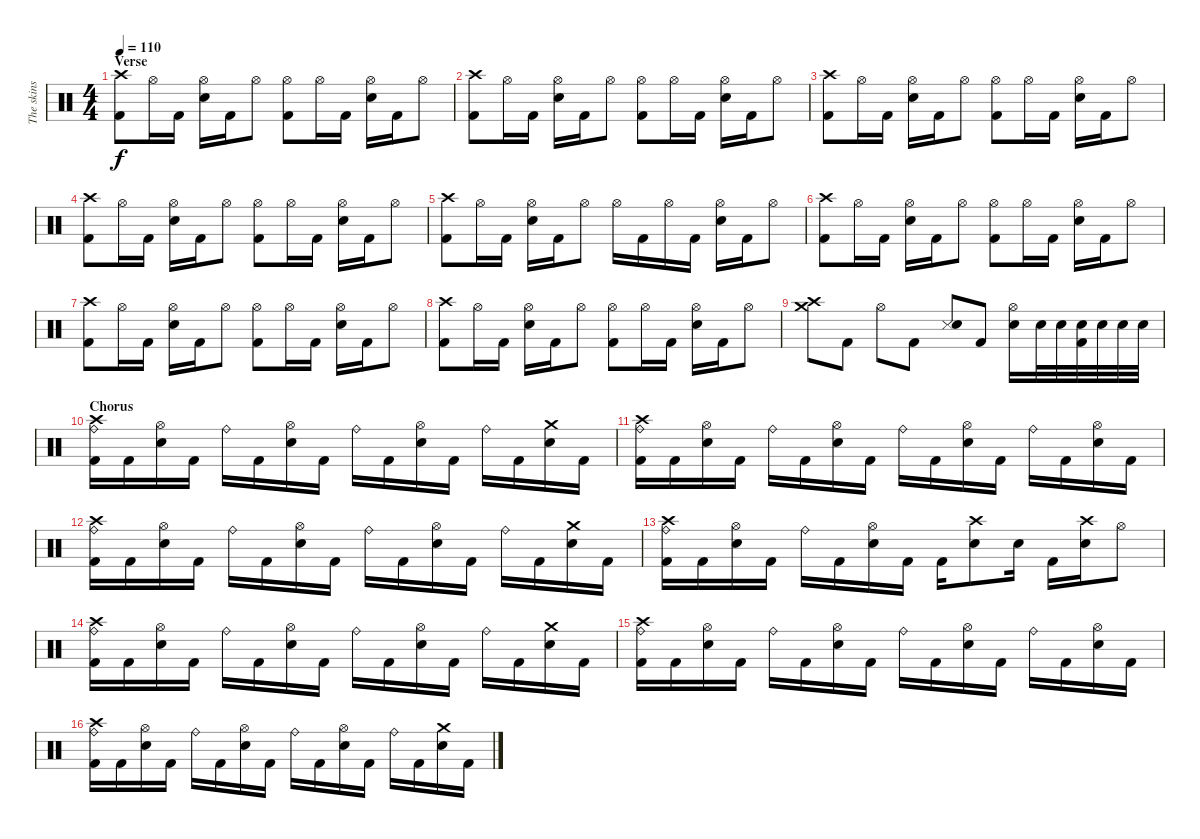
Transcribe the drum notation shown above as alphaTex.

\track ("The skins" "The skins") {instrument percussion}
\staff {score}
\articulation defaults
\ts (4 4)
\section ("" "Verse")
\tempo 110
\clef neutral
\ks c
("Crash high (hit)" "Kick (hit) 2").8{dy f} "Hi-Hat (open)".16 "Kick (hit) 2".16 ("Hi-Hat (open)" "Electric Snare (hit)").16 "Kick (hit) 2".16 "Hi-Hat (open)".8 ("Hi-Hat (open)" "Kick (hit) 2").8 "Hi-Hat (open)".16 "Kick (hit) 2".16 ("Hi-Hat (open)" "Electric Snare (hit)").16 "Kick (hit) 2".16 "Hi-Hat (open)".8 |
("Crash high (hit)" "Kick (hit) 2").8 "Hi-Hat (open)".16 "Kick (hit) 2".16 ("Hi-Hat (open)" "Electric Snare (hit)").16 "Kick (hit) 2".16 "Hi-Hat (open)".8 ("Hi-Hat (open)" "Kick (hit) 2").8 "Hi-Hat (open)".16 "Kick (hit) 2".16 ("Hi-Hat (open)" "Electric Snare (hit)").16 "Kick (hit) 2".16 "Hi-Hat (open)".8 |
("Crash high (hit)" "Kick (hit) 2").8 "Hi-Hat (open)".16 "Kick (hit) 2".16 ("Hi-Hat (open)" "Electric Snare (hit)").16 "Kick (hit) 2".16 "Hi-Hat (open)".8 ("Hi-Hat (open)" "Kick (hit) 2").8 "Hi-Hat (open)".16 "Kick (hit) 2".16 ("Hi-Hat (open)" "Electric Snare (hit)").16 "Kick (hit) 2".16 "Hi-Hat (open)".8 |
("Crash high (hit)" "Kick (hit) 2").8 "Hi-Hat (open)".16 "Kick (hit) 2".16 ("Hi-Hat (open)" "Electric Snare (hit)").16 "Kick (hit) 2".16 "Hi-Hat (open)".8 ("Hi-Hat (open)" "Kick (hit) 2").8 "Hi-Hat (open)".16 "Kick (hit) 2".16 ("Hi-Hat (open)" "Electric Snare (hit)").16 "Kick (hit) 2".16 "Hi-Hat (open)".8 |
("Crash high (hit)" "Kick (hit) 2").8 "Hi-Hat (open)".16 "Kick (hit) 2".16 ("Hi-Hat (open)" "Electric Snare (hit)").16 "Kick (hit) 2".16 "Hi-Hat (open)".8 "Hi-Hat (open)".16 "Kick (hit) 2".16 "Hi-Hat (open)".16 "Kick (hit) 2".16 ("Hi-Hat (open)" "Electric Snare (hit)").16 "Kick (hit) 2".16 "Hi-Hat (open)".8 |
("Crash high (hit)" "Kick (hit) 2").8 "Hi-Hat (open)".16 "Kick (hit) 2".16 ("Hi-Hat (open)" "Electric Snare (hit)").16 "Kick (hit) 2".16 "Hi-Hat (open)".8 ("Hi-Hat (open)" "Kick (hit) 2").8 "Hi-Hat (open)".16 "Kick (hit) 2".16 ("Hi-Hat (open)" "Electric Snare (hit)").16 "Kick (hit) 2".16 "Hi-Hat (open)".8 |
("Crash high (hit)" "Kick (hit) 2").8 "Hi-Hat (open)".16 "Kick (hit) 2".16 ("Hi-Hat (open)" "Electric Snare (hit)").16 "Kick (hit) 2".16 "Hi-Hat (open)".8 ("Hi-Hat (open)" "Kick (hit) 2").8 "Hi-Hat (open)".16 "Kick (hit) 2".16 ("Hi-Hat (open)" "Electric Snare (hit)").16 "Kick (hit) 2".16 "Hi-Hat (open)".8 |
("Crash high (hit)" "Kick (hit) 2").8 "Hi-Hat (open)".16 "Kick (hit) 2".16 ("Hi-Hat (open)" "Electric Snare (hit)").16 "Kick (hit) 2".16 "Hi-Hat (open)".8 ("Hi-Hat (open)" "Kick (hit) 2").8 "Hi-Hat (open)".16 "Kick (hit) 2".16 ("Hi-Hat (open)" "Electric Snare (hit)").16 "Kick (hit) 2".16 "Hi-Hat (open)".8 |
("Crash high (hit)" "Crash medium (hit)").8 "Kick (hit) 2".8 "Hi-Hat (open)".8 "Kick (hit) 2".8 ("Snare (side stick) 3" "Electric Snare (hit)").8 "Kick (hit) 2".8 ("Hi-Hat (open)" "Electric Snare (hit)").16 "Electric Snare (hit)".32 "Electric Snare (hit)".32 ("Electric Snare (hit)" "Kick (hit) 2").32 "Electric Snare (hit)".32 "Electric Snare (hit)".32 "Electric Snare (hit)".32 |
\section ("" "Chorus")
("Crash high (hit)" "Ride (bell)" "Kick (hit) 2").16 "Kick (hit) 2".16 ("Hi-Hat (open)" "Electric Snare (hit)").16 "Kick (hit) 2".16 "Ride (bell)".16 "Kick (hit) 2".16 ("Hi-Hat (open)" "Electric Snare (hit)").16 "Kick (hit) 2".16 "Ride (bell)".16 "Kick (hit) 2".16 ("Hi-Hat (open)" "Electric Snare (hit)").16 "Kick (hit) 2".16 "Ride (bell)".16 "Kick (hit) 2".16 ("Crash medium (hit)" "Electric Snare (hit)").16 "Kick (hit) 2".16 |
("Crash high (hit)" "Ride (bell)" "Kick (hit) 2").16 "Kick (hit) 2".16 ("Hi-Hat (open)" "Electric Snare (hit)").16 "Kick (hit) 2".16 "Ride (bell)".16 "Kick (hit) 2".16 ("Hi-Hat (open)" "Electric Snare (hit)").16 "Kick (hit) 2".16 "Ride (bell)".16 "Kick (hit) 2".16 ("Hi-Hat (open)" "Electric Snare (hit)").16 "Kick (hit) 2".16 "Ride (bell)".16 "Kick (hit) 2".16 ("Hi-Hat (open)" "Electric Snare (hit)").16 "Kick (hit) 2".16 |
("Crash high (hit)" "Ride (bell)" "Kick (hit) 2").16 "Kick (hit) 2".16 ("Hi-Hat (open)" "Electric Snare (hit)").16 "Kick (hit) 2".16 "Ride (bell)".16 "Kick (hit) 2".16 ("Hi-Hat (open)" "Electric Snare (hit)").16 "Kick (hit) 2".16 "Ride (bell)".16 "Kick (hit) 2".16 ("Hi-Hat (open)" "Electric Snare (hit)").16 "Kick (hit) 2".16 "Ride (bell)".16 "Kick (hit) 2".16 ("Crash medium (hit)" "Electric Snare (hit)").16 "Kick (hit) 2".16 |
("Crash high (hit)" "Ride (bell)" "Kick (hit) 2").16 "Kick (hit) 2".16 ("Hi-Hat (open)" "Electric Snare (hit)").16 "Kick (hit) 2".16 "Ride (bell)".16 "Kick (hit) 2".16 ("Hi-Hat (open)" "Electric Snare (hit)").16 "Kick (hit) 2".16 "Kick (hit) 2".16 ("Crash high (hit)" "Electric Snare (hit)").8 "Electric Snare (hit)".16 "Kick (hit) 2".16 ("Crash high (hit)" "Electric Snare (hit)").16 "Hi-Hat (open)".8 |
("Crash high (hit)" "Ride (bell)" "Kick (hit) 2").16 "Kick (hit) 2".16 ("Hi-Hat (open)" "Electric Snare (hit)").16 "Kick (hit) 2".16 "Ride (bell)".16 "Kick (hit) 2".16 ("Hi-Hat (open)" "Electric Snare (hit)").16 "Kick (hit) 2".16 "Ride (bell)".16 "Kick (hit) 2".16 ("Hi-Hat (open)" "Electric Snare (hit)").16 "Kick (hit) 2".16 "Ride (bell)".16 "Kick (hit) 2".16 ("Crash medium (hit)" "Electric Snare (hit)").16 "Kick (hit) 2".16 |
("Crash high (hit)" "Ride (bell)" "Kick (hit) 2").16 "Kick (hit) 2".16 ("Hi-Hat (open)" "Electric Snare (hit)").16 "Kick (hit) 2".16 "Ride (bell)".16 "Kick (hit) 2".16 ("Hi-Hat (open)" "Electric Snare (hit)").16 "Kick (hit) 2".16 "Ride (bell)".16 "Kick (hit) 2".16 ("Hi-Hat (open)" "Electric Snare (hit)").16 "Kick (hit) 2".16 "Ride (bell)".16 "Kick (hit) 2".16 ("Hi-Hat (open)" "Electric Snare (hit)").16 "Kick (hit) 2".16 |
("Crash high (hit)" "Ride (bell)" "Kick (hit) 2").16 "Kick (hit) 2".16 ("Hi-Hat (open)" "Electric Snare (hit)").16 "Kick (hit) 2".16 "Ride (bell)".16 "Kick (hit) 2".16 ("Hi-Hat (open)" "Electric Snare (hit)").16 "Kick (hit) 2".16 "Ride (bell)".16 "Kick (hit) 2".16 ("Hi-Hat (open)" "Electric Snare (hit)").16 "Kick (hit) 2".16 "Ride (bell)".16 "Kick (hit) 2".16 ("Crash medium (hit)" "Electric Snare (hit)").16 "Kick (hit) 2".16
